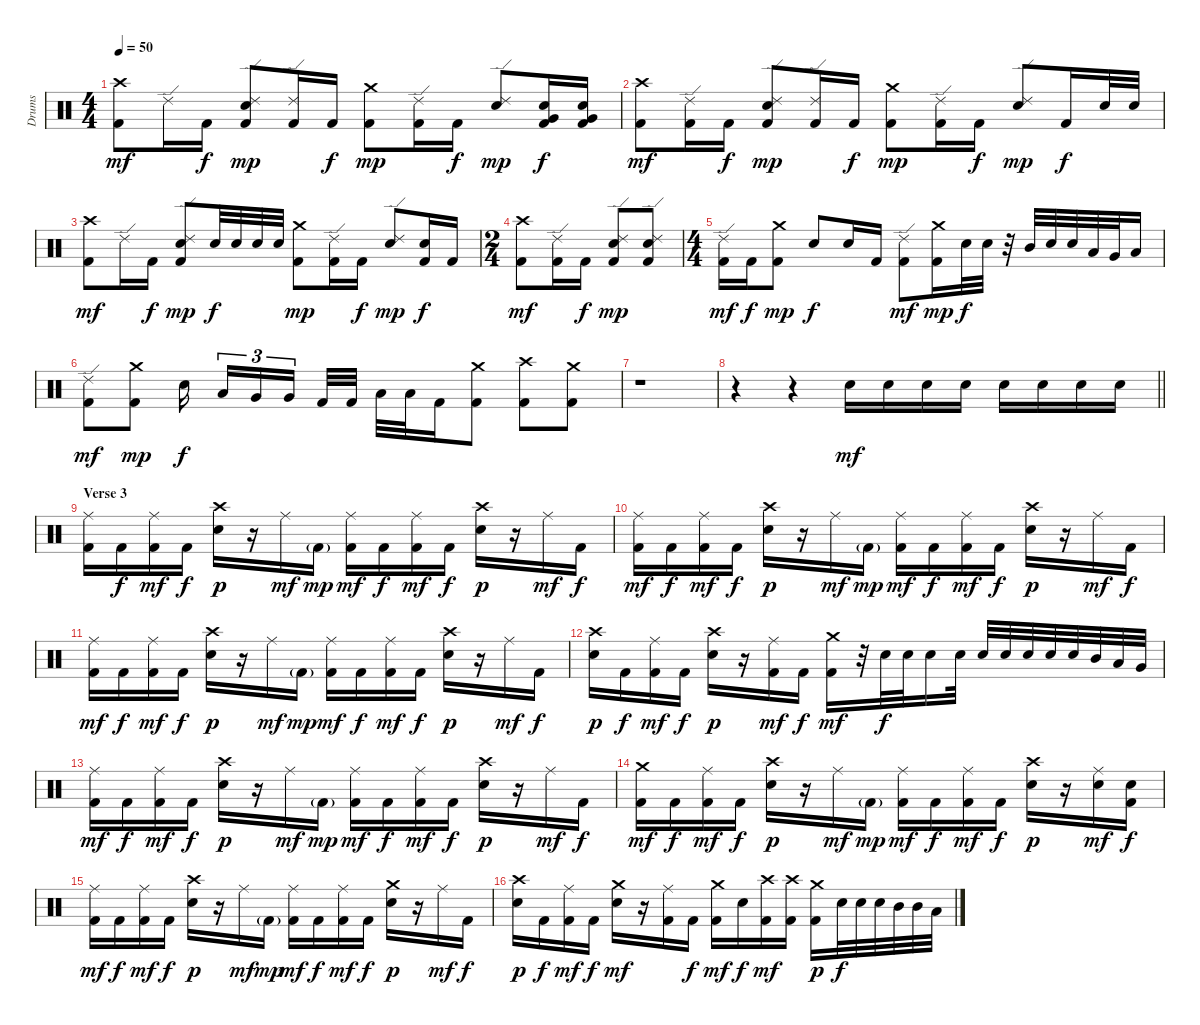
\track ("Drums" "Drums") {instrument percussion}
\staff {score}
\articulation defaults
\ts (4 4)
\tempo 50
\clef neutral
\ks c
("Crash high (hit)" "Kick (hit) 2").8{dy mf} "Ride (edge) 2".16 "Kick (hit) 2".16{dy f} ("Ride (edge) 2" "Electric Snare (hit)" "Kick (hit) 2").8{dy mp} ("Ride (edge) 2" "Kick (hit) 2").16 "Kick (hit) 2".16{dy f} ("Crash medium (hit)" "Kick (hit) 2").8{dy mp} ("Ride (edge) 2" "Kick (hit) 2").16 "Kick (hit) 2".16{dy f} ("Ride (edge) 2" "Electric Snare (hit)").8{dy mp} ("Electric Snare (hit)" "Very Low Tom (hit)" "Kick (hit) 2").16{dy f} ("Electric Snare (hit)" "Very Low Tom (hit)" "Kick (hit) 2").16 |
("Crash high (hit)" "Kick (hit) 2").8{dy mf} ("Ride (edge) 2" "Kick (hit) 2").16 "Kick (hit) 2".16{dy f} ("Ride (edge) 2" "Electric Snare (hit)" "Kick (hit) 2").8{dy mp} ("Ride (edge) 2" "Kick (hit) 2").16 "Kick (hit) 2".16{dy f} ("Crash medium (hit)" "Kick (hit) 2").8{dy mp} ("Ride (edge) 2" "Kick (hit) 2").16 "Kick (hit) 2".16{dy f} ("Ride (edge) 2" "Electric Snare (hit)").8{dy mp} "Kick (hit) 2".16{dy f} "Electric Snare (hit)".32 "Electric Snare (hit)".32 |
("Crash high (hit)" "Kick (hit) 2").8{dy mf} "Ride (edge) 2".16 "Kick (hit) 2".16{dy f} ("Ride (edge) 2" "Electric Snare (hit)" "Kick (hit) 2").8{dy mp} "Electric Snare (hit)".32{dy f} "Electric Snare (hit)".32 "Electric Snare (hit)".32 "Electric Snare (hit)".32 ("Crash medium (hit)" "Kick (hit) 2").8{dy mp} ("Ride (edge) 2" "Kick (hit) 2").16 "Kick (hit) 2".16{dy f} ("Ride (edge) 2" "Electric Snare (hit)").8{dy mp} ("Electric Snare (hit)" "Kick (hit) 2").16{dy f} "Kick (hit) 2".16 |
\ts (2 4)
("Crash high (hit)" "Kick (hit) 2").8{dy mf} ("Ride (edge) 2" "Kick (hit) 2").16 "Kick (hit) 2".16{dy f} ("Ride (edge) 2" "Electric Snare (hit)" "Kick (hit) 2").8{dy mp} ("Ride (edge) 2" "Electric Snare (hit)" "Kick (hit) 2").8 |
\ts (4 4)
("Ride (edge) 2" "Kick (hit) 2").16{dy mf} "Kick (hit) 2".16{dy f} ("Crash medium (hit)" "Kick (hit) 2").8{dy mp} "Electric Snare (hit)".8{dy f} "Electric Snare (hit)".16 "Kick (hit) 2".16 ("Ride (edge) 2" "Kick (hit) 2").8{dy mf} ("Crash medium (hit)" "Kick (hit) 2").16{dy mp} "Electric Snare (hit)".32{dy f} "Electric Snare (hit)".32 r.32 "Mid Tom (hit)".32 "Electric Snare (hit)".32 "Electric Snare (hit)".32 "Low Tom (hit)".32 "Very Low Tom (hit)".32 "Low Floor Tom (hit)".16 |
("Ride (edge) 2" "Kick (hit) 2").8{dy mf} ("Crash medium (hit)" "Kick (hit) 2").8{dy mp} "Electric Snare (hit)".16{dy f beam splitsecondary} "Low Tom (hit)".16{tu (3 2)} "Very Low Tom (hit)".16{tu (3 2)} "Very Low Tom (hit)".16{tu (3 2) beam splitsecondary} "Kick (hit) 2".32 "Kick (hit) 2".32 "Low Floor Tom (hit)".32 "Low Floor Tom (hit)".32 "Kick (hit) 2".16 ("Crash medium (hit)" "Kick (hit) 2").8 ("Crash high (hit)" "Kick (hit) 2").8 ("Crash medium (hit)" "Kick (hit) 2").8 |
r.1 |
\barLineRight lightlight
r.4 r.4 "Electric Snare (hit)".16{dy mf} "Electric Snare (hit)".16 "Electric Snare (hit)".16 "Electric Snare (hit)".16 "Electric Snare (hit)".16 "Electric Snare (hit)".16 "Electric Snare (hit)".16 "Electric Snare (hit)".16 |
\section ("" "Verse 3")
("Ride (middle)" "Kick (hit) 2").16 "Kick (hit) 2".16{dy f} ("Ride (middle)" "Kick (hit) 2").16{dy mf} "Kick (hit) 2".16{dy f} ("Crash high (hit)" "Electric Snare (hit)").16{dy p} r.16 "Ride (middle)".16{dy mf} "Kick (hit) 2"{g}.16{dy mp} ("Ride (middle)" "Kick (hit) 2").16{dy mf} "Kick (hit) 2".16{dy f} ("Ride (middle)" "Kick (hit) 2").16{dy mf} "Kick (hit) 2".16{dy f} ("Crash high (hit)" "Electric Snare (hit)").16{dy p} r.16 "Ride (middle)".16{dy mf} "Kick (hit) 2".16{dy f} |
("Ride (middle)" "Kick (hit) 2").16{dy mf} "Kick (hit) 2".16{dy f} ("Ride (middle)" "Kick (hit) 2").16{dy mf} "Kick (hit) 2".16{dy f} ("Crash high (hit)" "Electric Snare (hit)").16{dy p} r.16 "Ride (middle)".16{dy mf} "Kick (hit) 2"{g}.16{dy mp} ("Ride (middle)" "Kick (hit) 2").16{dy mf} "Kick (hit) 2".16{dy f} ("Ride (middle)" "Kick (hit) 2").16{dy mf} "Kick (hit) 2".16{dy f} ("Crash high (hit)" "Electric Snare (hit)").16{dy p} r.16 "Ride (middle)".16{dy mf} "Kick (hit) 2".16{dy f} |
("Ride (middle)" "Kick (hit) 2").16{dy mf} "Kick (hit) 2".16{dy f} ("Ride (middle)" "Kick (hit) 2").16{dy mf} "Kick (hit) 2".16{dy f} ("Crash high (hit)" "Electric Snare (hit)").16{dy p} r.16 "Ride (middle)".16{dy mf} "Kick (hit) 2"{g}.16{dy mp} ("Ride (middle)" "Kick (hit) 2").16{dy mf} "Kick (hit) 2".16{dy f} ("Ride (middle)" "Kick (hit) 2").16{dy mf} "Kick (hit) 2".16{dy f} ("Crash high (hit)" "Electric Snare (hit)").16{dy p} r.16 "Ride (middle)".16{dy mf} "Kick (hit) 2".16{dy f} |
("Crash high (hit)" "Electric Snare (hit)").16{dy p} "Kick (hit) 2".16{dy f} ("Ride (middle)" "Kick (hit) 2").16{dy mf} "Kick (hit) 2".16{dy f} ("Crash high (hit)" "Electric Snare (hit)").16{dy p} r.16 ("Ride (middle)" "Kick (hit) 2").16{dy mf} "Kick (hit) 2".16{dy f} ("Crash medium (hit)" "Kick (hit) 2").16{dy mf} r.32 "Electric Snare (hit)".32{dy f} "Electric Snare (hit)".32 "Electric Snare (hit)".16 "Electric Snare (hit)".32 "Electric Snare (hit)".32 "Electric Snare (hit)".32 "Electric Snare (hit)".32 "Electric Snare (hit)".32 "Electric Snare (hit)".32 "Mid Tom (hit)".32 "Low Tom (hit)".32 "Very Low Tom (hit)".32 |
("Ride (middle)" "Kick (hit) 2").16{dy mf} "Kick (hit) 2".16{dy f} ("Ride (middle)" "Kick (hit) 2").16{dy mf} "Kick (hit) 2".16{dy f} ("Crash high (hit)" "Electric Snare (hit)").16{dy p} r.16 "Ride (middle)".16{dy mf} "Kick (hit) 2"{g}.16{dy mp} ("Ride (middle)" "Kick (hit) 2").16{dy mf} "Kick (hit) 2".16{dy f} ("Ride (middle)" "Kick (hit) 2").16{dy mf} "Kick (hit) 2".16{dy f} ("Crash high (hit)" "Electric Snare (hit)").16{dy p} r.16 "Ride (middle)".16{dy mf} "Kick (hit) 2".16{dy f} |
("Crash medium (hit)" "Kick (hit) 2").16{dy mf} "Kick (hit) 2".16{dy f} ("Ride (middle)" "Kick (hit) 2").16{dy mf} "Kick (hit) 2".16{dy f} ("Crash high (hit)" "Electric Snare (hit)").16{dy p} r.16 "Ride (middle)".16{dy mf} "Kick (hit) 2"{g}.16{dy mp} ("Ride (middle)" "Kick (hit) 2").16{dy mf} "Kick (hit) 2".16{dy f} ("Ride (middle)" "Kick (hit) 2").16{dy mf} "Kick (hit) 2".16{dy f} ("Crash high (hit)" "Electric Snare (hit)").16{dy p} r.16 ("Ride (middle)" "Electric Snare (hit)").16{dy mf} ("Electric Snare (hit)" "Kick (hit) 2").16{dy f} |
("Ride (middle)" "Kick (hit) 2").16{dy mf} "Kick (hit) 2".16{dy f} ("Ride (middle)" "Kick (hit) 2").16{dy mf} "Kick (hit) 2".16{dy f} ("Crash high (hit)" "Electric Snare (hit)").16{dy p} r.16 "Ride (middle)".16{dy mf} "Kick (hit) 2"{g}.16{dy mp} ("Ride (middle)" "Kick (hit) 2").16{dy mf} "Kick (hit) 2".16{dy f} ("Ride (middle)" "Kick (hit) 2").16{dy mf} "Kick (hit) 2".16{dy f} ("Crash medium (hit)" "Electric Snare (hit)").16{dy p} r.16 "Ride (middle)".16{dy mf} "Kick (hit) 2".16{dy f} |
("Crash high (hit)" "Electric Snare (hit)").16{dy p} "Kick (hit) 2".16{dy f} ("Ride (middle)" "Kick (hit) 2").16{dy mf} "Kick (hit) 2".16{dy f} ("Crash medium (hit)" "Electric Snare (hit)").16{dy mf} r.16 ("Ride (middle)" "Kick (hit) 2").16 "Kick (hit) 2".16{dy f} ("Crash medium (hit)" "Kick (hit) 2").16{dy mf} "Electric Snare (hit)".16{dy f} ("Crash high (hit)" "Kick (hit) 2").16{dy mf} ("Crash high (hit)" "Kick (hit) 2").16 ("Crash medium (hit)" "Kick (hit) 2").16{dy p} "Electric Snare (hit)".32{dy f} "Electric Snare (hit)".32 "Electric Snare (hit)".32 "Mid Tom (hit)".32 "Mid Tom (hit)".32 "Low Tom (hit)".32
